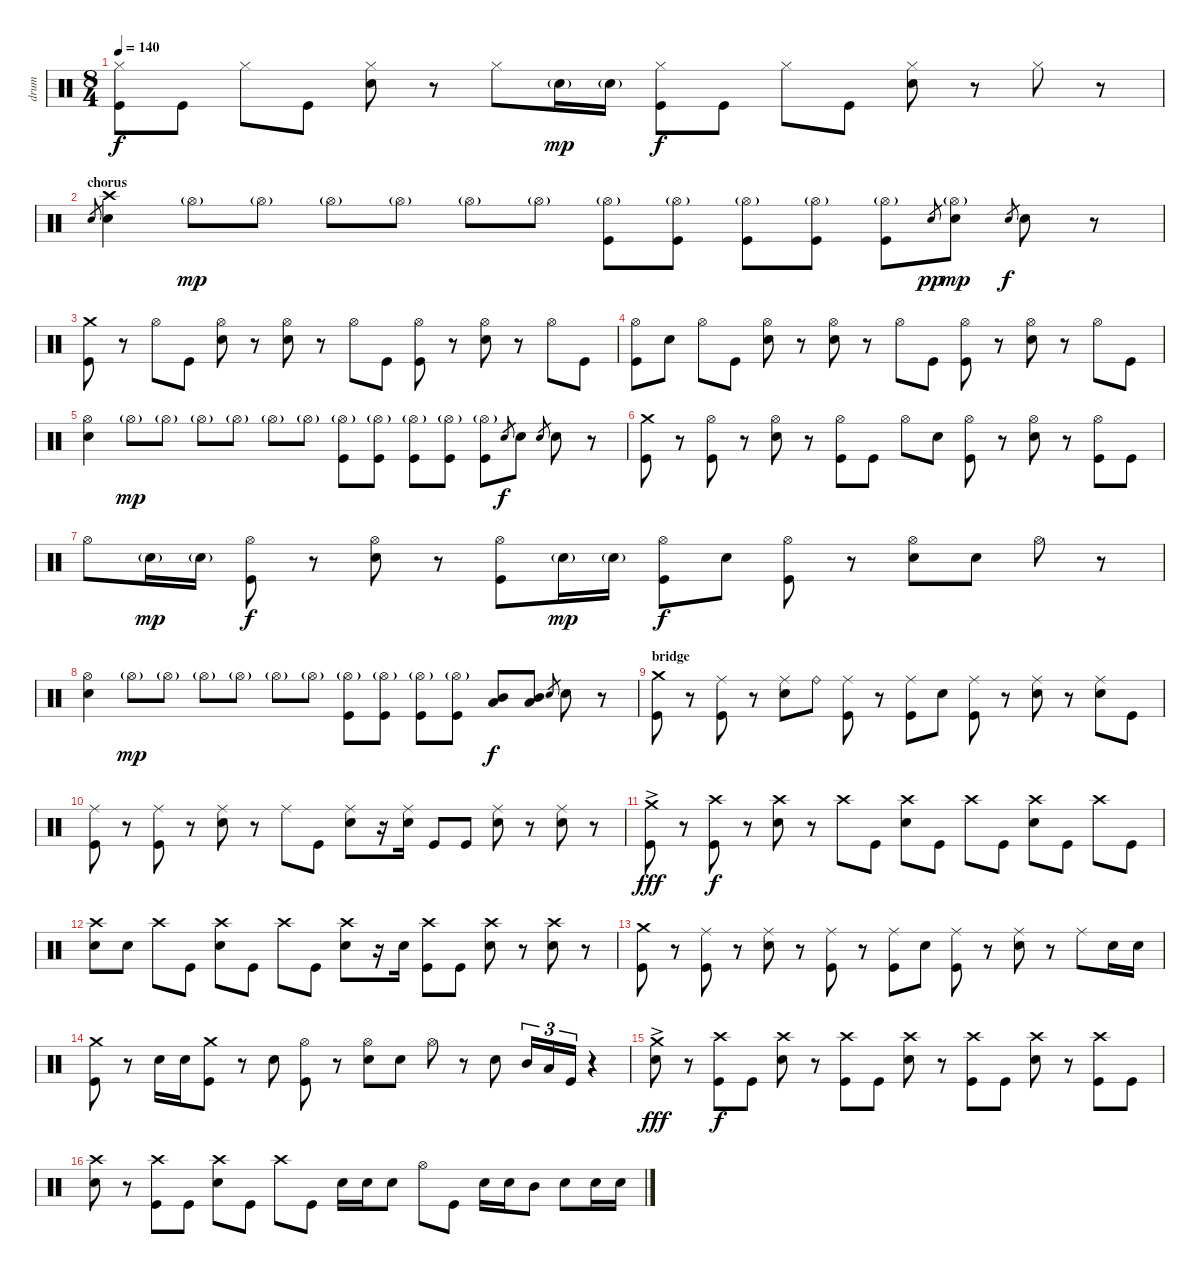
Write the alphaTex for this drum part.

\track ("drum" "drum") {instrument percussion}
\staff {score}
\articulation defaults
\ts (8 4)
\tempo 140
\clef neutral
\ks c
("Hi-Hat (closed)" "Kick (hit)").8{dy f volume 16} "Kick (hit)".8 "Hi-Hat (closed)".8 "Kick (hit)".8 ("Hi-Hat (closed)" "Electric Snare (hit)").8 r.8 "Hi-Hat (closed)".8 "Electric Snare (hit)"{g}.16{dy mp volume 11} "Electric Snare (hit)"{g}.16 ("Hi-Hat (closed)" "Kick (hit)").8{dy f volume 16} "Kick (hit)".8 "Hi-Hat (closed)".8 "Kick (hit)".8 ("Hi-Hat (closed)" "Electric Snare (hit)").8 r.8 "Hi-Hat (closed)".8 r.8 |
\section ("" "chorus")
"Electric Snare (hit)".8{gr} ("Crash high (hit)" "Electric Snare (hit)").4 "Hi-Hat (open)"{g}.8{dy mp} "Hi-Hat (open)"{g}.8 "Hi-Hat (open)"{g}.8 "Hi-Hat (open)"{g}.8 "Hi-Hat (open)"{g}.8 "Hi-Hat (open)"{g}.8 ("Hi-Hat (open)"{g} "Kick (hit)").8 ("Hi-Hat (open)"{g} "Kick (hit)").8 ("Hi-Hat (open)"{g} "Kick (hit)").8 ("Hi-Hat (open)"{g} "Kick (hit)").8 ("Hi-Hat (open)"{g} "Kick (hit)").8 "Electric Snare (hit)".8{gr dy pp} ("Hi-Hat (open)"{g} "Electric Snare (hit)").8{dy mp} "Electric Snare (hit)".8{gr dy f} "Electric Snare (hit)".8 r.8 |
("Crash medium (hit)" "Kick (hit)").8 r.8 "Hi-Hat (open)".8 "Kick (hit)".8 ("Hi-Hat (open)" "Electric Snare (hit)").8 r.8 ("Hi-Hat (open)" "Electric Snare (hit)").8 r.8 "Hi-Hat (open)".8 "Kick (hit)".8 ("Hi-Hat (open)" "Kick (hit)").8 r.8 ("Hi-Hat (open)" "Electric Snare (hit)").8 r.8 "Hi-Hat (open)".8 "Kick (hit)".8 |
("Hi-Hat (open)" "Kick (hit)").8 "Electric Snare (hit)".8 "Hi-Hat (open)".8 "Kick (hit)".8 ("Hi-Hat (open)" "Electric Snare (hit)").8 r.8 ("Hi-Hat (open)" "Electric Snare (hit)").8 r.8 "Hi-Hat (open)".8 "Kick (hit)".8 ("Hi-Hat (open)" "Kick (hit)").8 r.8 ("Hi-Hat (open)" "Electric Snare (hit)").8 r.8 "Hi-Hat (open)".8 "Kick (hit)".8 |
("Hi-Hat (open)" "Electric Snare (hit)").4 "Hi-Hat (open)"{g}.8{dy mp} "Hi-Hat (open)"{g}.8 "Hi-Hat (open)"{g}.8 "Hi-Hat (open)"{g}.8 "Hi-Hat (open)"{g}.8 "Hi-Hat (open)"{g}.8 ("Hi-Hat (open)"{g} "Kick (hit)").8 ("Hi-Hat (open)"{g} "Kick (hit)").8 ("Hi-Hat (open)"{g} "Kick (hit)").8 ("Hi-Hat (open)"{g} "Kick (hit)").8 ("Hi-Hat (open)"{g} "Kick (hit)").8 "Electric Snare (hit)".8{gr dy f} "Electric Snare (hit)".8 "Electric Snare (hit)".8{gr} "Electric Snare (hit)".8 r.8 |
("Crash medium (hit)" "Kick (hit)").8 r.8 ("Hi-Hat (open)" "Kick (hit)").8 r.8 ("Hi-Hat (open)" "Electric Snare (hit)").8 r.8 ("Hi-Hat (open)" "Kick (hit)").8 "Kick (hit)".8 "Hi-Hat (open)".8 "Electric Snare (hit)".8 ("Hi-Hat (open)" "Kick (hit)").8 r.8 ("Hi-Hat (open)" "Electric Snare (hit)").8 r.8 ("Hi-Hat (open)" "Kick (hit)").8 "Kick (hit)".8 |
"Hi-Hat (open)".8 "Electric Snare (hit)"{g}.16{dy mp} "Electric Snare (hit)"{g}.16 ("Hi-Hat (open)" "Kick (hit)").8{dy f} r.8 ("Hi-Hat (open)" "Electric Snare (hit)").8 r.8 ("Hi-Hat (open)" "Kick (hit)").8 "Electric Snare (hit)"{g}.16{dy mp} "Electric Snare (hit)"{g}.16 ("Hi-Hat (open)" "Kick (hit)").8{dy f} "Electric Snare (hit)".8 ("Hi-Hat (open)" "Kick (hit)").8 r.8 ("Hi-Hat (open)" "Electric Snare (hit)").8 "Electric Snare (hit)".8 "Hi-Hat (open)".8 r.8 |
("Hi-Hat (open)" "Electric Snare (hit)").4 "Hi-Hat (open)"{g}.8{dy mp} "Hi-Hat (open)"{g}.8 "Hi-Hat (open)"{g}.8 "Hi-Hat (open)"{g}.8 "Hi-Hat (open)"{g}.8 "Hi-Hat (open)"{g}.8 ("Hi-Hat (open)"{g} "Kick (hit)").8 ("Hi-Hat (open)"{g} "Kick (hit)").8 ("Hi-Hat (open)"{g} "Kick (hit)").8 ("Hi-Hat (open)"{g} "Kick (hit)").8 ("Low Floor Tom (hit)" "Mid Tom (hit)").8{dy f} ("Low Floor Tom (hit)" "Mid Tom (hit)").8 "Electric Snare (hit)".8{gr} "Electric Snare (hit)".8 r.8 |
\section ("" "bridge")
("Crash medium (hit)" "Kick (hit)").8 r.8 ("Ride (middle)" "Kick (hit)").8 r.8 ("Ride (middle)" "Electric Snare (hit)").8 "Ride (bell)".8 ("Ride (middle)" "Kick (hit)").8 r.8 ("Ride (middle)" "Kick (hit)").8 "Electric Snare (hit)".8 ("Ride (middle)" "Kick (hit)").8 r.8 ("Ride (middle)" "Electric Snare (hit)").8 r.8 ("Ride (middle)" "Electric Snare (hit)").8 "Kick (hit)".8 |
("Ride (middle)" "Kick (hit)").8 r.8 ("Ride (middle)" "Kick (hit)").8 r.8 ("Ride (middle)" "Electric Snare (hit)").8 r.8 "Ride (middle)".8 "Kick (hit)".8 ("Ride (middle)" "Electric Snare (hit)").8 r.16 ("Ride (middle)" "Electric Snare (hit)").16 "Kick (hit)".8 "Kick (hit)".8 ("Ride (middle)" "Electric Snare (hit)").8 r.8 ("Ride (middle)" "Electric Snare (hit)").8 r.8 |
("Crash medium (hit)"{ac} "Kick (hit)").8{dy fff} r.8 ("Crash high (hit)" "Kick (hit)").8{dy f} r.8 ("Crash high (hit)" "Electric Snare (hit)").8 r.8 "Crash high (hit)".8 "Kick (hit)".8 ("Crash high (hit)" "Electric Snare (hit)").8 "Kick (hit)".8 "Crash high (hit)".8 "Kick (hit)".8 ("Crash high (hit)" "Electric Snare (hit)").8 "Kick (hit)".8 "Crash high (hit)".8 "Kick (hit)".8 |
("Crash high (hit)" "Electric Snare (hit)").8 "Electric Snare (hit)".8 "Crash high (hit)".8 "Kick (hit)".8 ("Crash high (hit)" "Electric Snare (hit)").8 "Kick (hit)".8 "Crash high (hit)".8 "Kick (hit)".8 ("Crash high (hit)" "Electric Snare (hit)").8 r.16 "Electric Snare (hit)".16 ("Crash high (hit)" "Kick (hit)").8 "Kick (hit)".8 ("Crash high (hit)" "Electric Snare (hit)").8 r.8 ("Crash high (hit)" "Electric Snare (hit)").8 r.8 |
("Crash medium (hit)" "Kick (hit)").8 r.8 ("Ride (middle)" "Kick (hit)").8 r.8 ("Ride (middle)" "Electric Snare (hit)").8 r.8 ("Ride (middle)" "Kick (hit)").8 r.8 ("Ride (middle)" "Kick (hit)").8 "Electric Snare (hit)".8 ("Ride (middle)" "Kick (hit)").8 r.8 ("Ride (middle)" "Electric Snare (hit)").8 r.8 "Ride (middle)".8 "Electric Snare (hit)".16 "Electric Snare (hit)".16 |
("Crash medium (hit)" "Kick (hit)").8 r.8 "Electric Snare (hit)".16 "Electric Snare (hit)".16 ("Crash medium (hit)" "Kick (hit)").8 r.8 "Electric Snare (hit)".8 ("Hi-Hat (open)" "Kick (hit)").8 r.8 ("Hi-Hat (open)" "Electric Snare (hit)").8 "Electric Snare (hit)".8 "Hi-Hat (open)".8 r.8 "Electric Snare (hit)".8 "Mid Tom (hit)".16{tu (3 2)} "Low Floor Tom (hit)".16{tu (3 2)} "Kick (hit)".16{tu (3 2)} r.4 |
("Crash medium (hit)"{ac} "Electric Snare (hit)").8{dy fff} r.8 ("Crash high (hit)" "Kick (hit)").8{dy f} "Kick (hit)".8 ("Crash high (hit)" "Electric Snare (hit)").8 r.8 ("Crash high (hit)" "Kick (hit)").8 "Kick (hit)".8 ("Crash high (hit)" "Electric Snare (hit)").8 r.8 ("Crash high (hit)" "Kick (hit)").8 "Kick (hit)".8 ("Crash high (hit)" "Electric Snare (hit)").8 r.8 ("Crash high (hit)" "Kick (hit)").8 "Kick (hit)".8 |
("Crash high (hit)" "Electric Snare (hit)").8 r.8 ("Crash high (hit)" "Kick (hit)").8 "Kick (hit)".8 ("Crash high (hit)" "Electric Snare (hit)").8 "Kick (hit)".8 "Crash high (hit)".8 "Kick (hit)".8 "Electric Snare (hit)".16 "Electric Snare (hit)".16 "Electric Snare (hit)".8 "Hi-Hat (open)".8 "Kick (hit)".8 "Electric Snare (hit)".16 "Electric Snare (hit)".16 "Mid Tom (hit)".8 "Electric Snare (hit)".8 "Electric Snare (hit)".16 "Electric Snare (hit)".16
